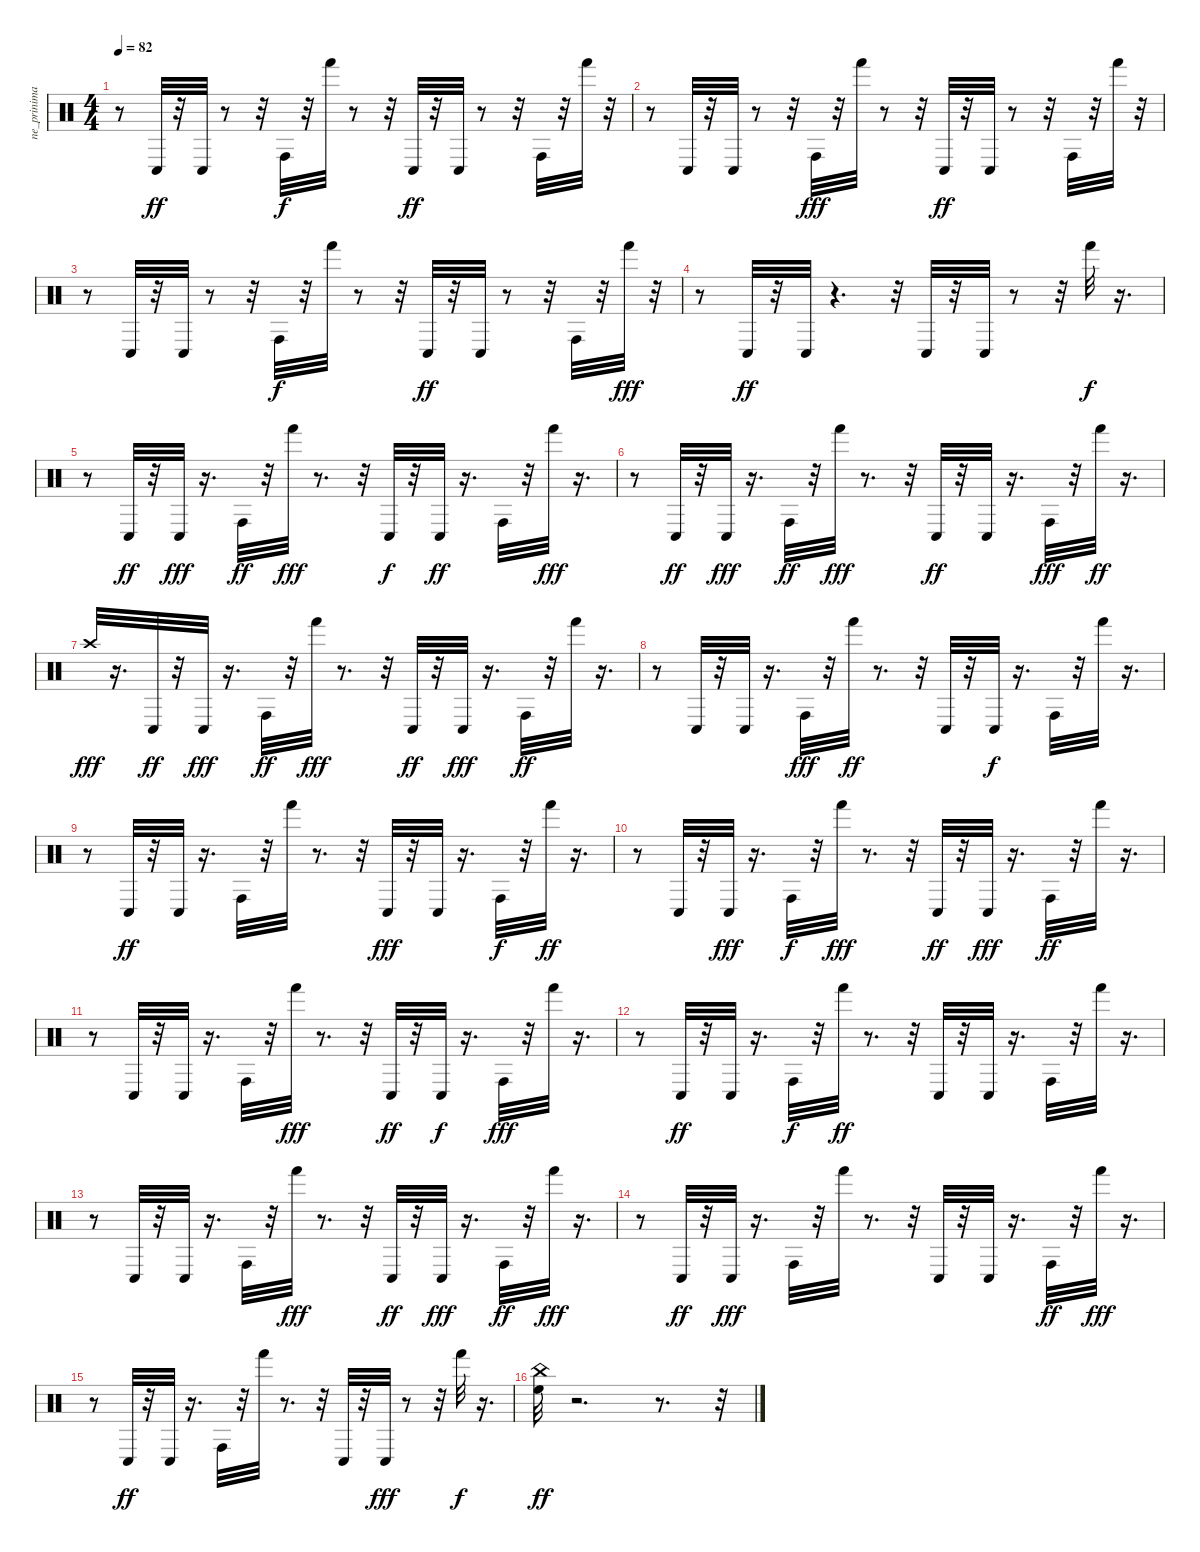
\track ("ne_prinimai" "ne_prinima") {instrument percussion}
\staff {score}
\articulation defaults
\ts (4 4)
\tempo 82
\clef neutral
\ks c
r.8{dy fff} "Conga low (hit)".32{dy ff} r.32 "Conga low (hit)".32 r.8 r.32 "Conga high (hit)".32{dy f} r.32 "Hand (hit)".32 r.8 r.32 "Conga low (hit)".32{dy ff} r.32 "Conga low (hit)".32 r.8 r.32 "Conga high (hit)".32 r.32 "Hand (hit)".32 r.32 |
r.8 "Conga low (hit)".32 r.32 "Conga low (hit)".32 r.8 r.32 "Conga high (hit)".32{dy fff} r.32 "Hand (hit)".32 r.8 r.32 "Conga low (hit)".32{dy ff} r.32 "Conga low (hit)".32 r.8 r.32 "Conga high (hit)".32 r.32 "Hand (hit)".32 r.32 |
r.8 "Conga low (hit)".32 r.32 "Conga low (hit)".32 r.8 r.32 "Conga high (hit)".32{dy f} r.32 "Hand (hit)".32 r.8 r.32 "Conga low (hit)".32{dy ff} r.32 "Conga low (hit)".32 r.8 r.32 "Conga high (hit)".32 r.32 "Hand (hit)".32{dy fff} r.32 |
r.8 "Conga low (hit)".32{dy ff} r.32 "Conga low (hit)".32 r.4{d} r.32 "Conga low (hit)".32 r.32 "Conga low (hit)".32 r.8 r.32 "Hand (hit)".32{dy f} r.16{d} |
r.8 "Conga low (hit)".32{dy ff} r.32 "Conga low (hit)".32{dy fff} r.16{d} "Conga high (hit)".32{dy ff} r.32 "Hand (hit)".32{dy fff} r.8{d} r.32 "Conga low (hit)".32{dy f} r.32 "Conga low (hit)".32{dy ff} r.16{d} "Conga high (hit)".32 r.32 "Hand (hit)".32{dy fff} r.16{d} |
r.8 "Conga low (hit)".32{dy ff} r.32 "Conga low (hit)".32{dy fff} r.16{d} "Conga high (hit)".32{dy ff} r.32 "Hand (hit)".32{dy fff} r.8{d} r.32 "Conga low (hit)".32{dy ff} r.32 "Conga low (hit)".32 r.16{d} "Conga high (hit)".32{dy fff} r.32 "Hand (hit)".32{dy ff} r.16{d} |
"Crash high (hit)".32{dy fff} r.16{d} "Conga low (hit)".32{dy ff} r.32 "Conga low (hit)".32{dy fff} r.16{d} "Conga high (hit)".32{dy ff} r.32 "Hand (hit)".32{dy fff} r.8{d} r.32 "Conga low (hit)".32{dy ff} r.32 "Conga low (hit)".32{dy fff} r.16{d} "Conga high (hit)".32{dy ff} r.32 "Hand (hit)".32 r.16{d} |
r.8 "Conga low (hit)".32 r.32 "Conga low (hit)".32 r.16{d} "Conga high (hit)".32{dy fff} r.32 "Hand (hit)".32{dy ff} r.8{d} r.32 "Conga low (hit)".32 r.32 "Conga low (hit)".32{dy f} r.16{d} "Conga high (hit)".32 r.32 "Hand (hit)".32 r.16{d} |
r.8 "Conga low (hit)".32{dy ff} r.32 "Conga low (hit)".32 r.16{d} "Conga high (hit)".32 r.32 "Hand (hit)".32 r.8{d} r.32 "Conga low (hit)".32{dy fff} r.32 "Conga low (hit)".32 r.16{d} "Conga high (hit)".32{dy f} r.32 "Hand (hit)".32{dy ff} r.16{d} |
r.8 "Conga low (hit)".32 r.32 "Conga low (hit)".32{dy fff} r.16{d} "Conga high (hit)".32{dy f} r.32 "Hand (hit)".32{dy fff} r.8{d} r.32 "Conga low (hit)".32{dy ff} r.32 "Conga low (hit)".32{dy fff} r.16{d} "Conga high (hit)".32{dy ff} r.32 "Hand (hit)".32 r.16{d} |
r.8 "Conga low (hit)".32 r.32 "Conga low (hit)".32 r.16{d} "Conga high (hit)".32 r.32 "Hand (hit)".32{dy fff} r.8{d} r.32 "Conga low (hit)".32{dy ff} r.32 "Conga low (hit)".32{dy f} r.16{d} "Conga high (hit)".32{dy fff} r.32 "Hand (hit)".32 r.16{d} |
r.8 "Conga low (hit)".32{dy ff} r.32 "Conga low (hit)".32 r.16{d} "Conga high (hit)".32{dy f} r.32 "Hand (hit)".32{dy ff} r.8{d} r.32 "Conga low (hit)".32 r.32 "Conga low (hit)".32 r.16{d} "Conga high (hit)".32 r.32 "Hand (hit)".32 r.16{d} |
r.8 "Conga low (hit)".32 r.32 "Conga low (hit)".32 r.16{d} "Conga high (hit)".32 r.32 "Hand (hit)".32{dy fff} r.8{d} r.32 "Conga low (hit)".32{dy ff} r.32 "Conga low (hit)".32{dy fff} r.16{d} "Conga high (hit)".32{dy ff} r.32 "Hand (hit)".32{dy fff} r.16{d} |
r.8 "Conga low (hit)".32{dy ff} r.32 "Conga low (hit)".32{dy fff} r.16{d} "Conga high (hit)".32 r.32 "Hand (hit)".32 r.8{d} r.32 "Conga low (hit)".32 r.32 "Conga low (hit)".32 r.16{d} "Conga high (hit)".32{dy ff} r.32 "Hand (hit)".32{dy fff} r.16{d} |
r.8 "Conga low (hit)".32{dy ff} r.32 "Conga low (hit)".32 r.16{d} "Conga high (hit)".32 r.32 "Hand (hit)".32 r.8{d} r.32 "Conga low (hit)".32 r.32 "Conga low (hit)".32{dy fff} r.8 r.32 "Hand (hit)".32{dy f} r.16{d} |
("High Floor Tom (hit)" "China (hit)").32{dy ff} r.2{d} r.8{d} r.32
